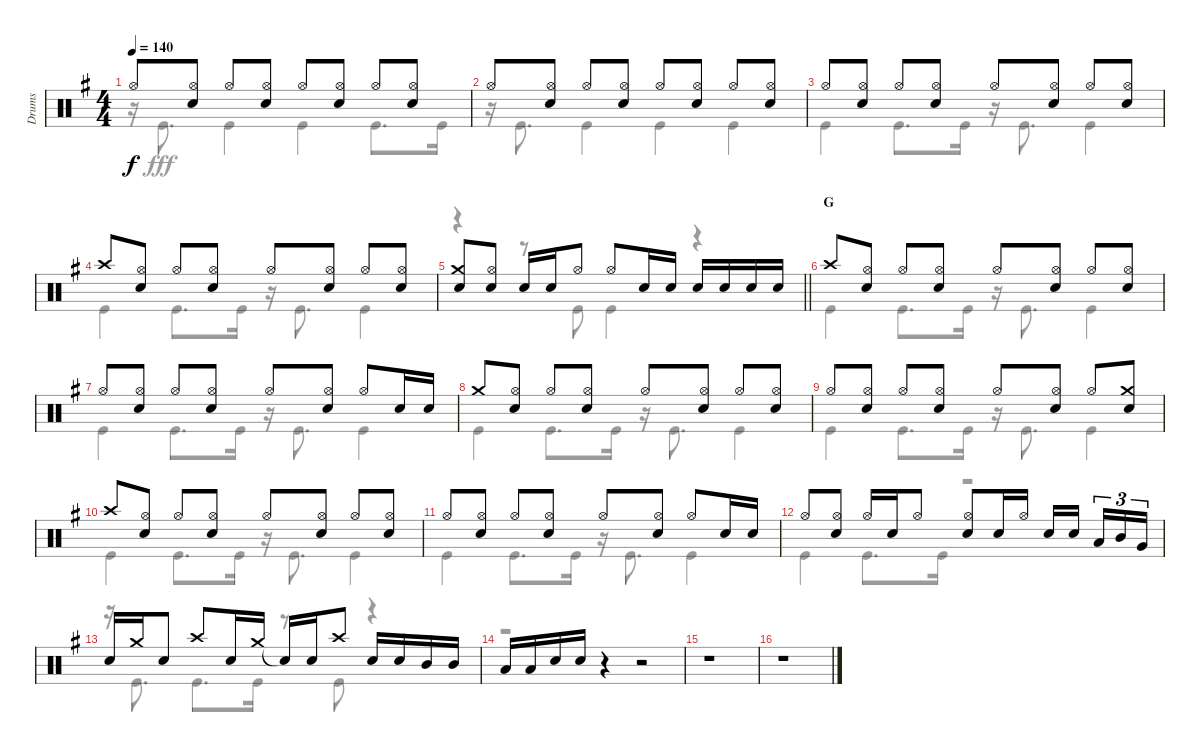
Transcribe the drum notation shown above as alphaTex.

\track ("Drums" "Drums") {instrument percussion}
\staff {score}
\articulation defaults
\voice
\ts (4 4)
\tempo 140
\clef neutral
\ks g "Hi-Hat (open)".8{dy f}
("Hi-Hat (open)" "Snare (hit) 2").8 "Hi-Hat (open)".8 ("Hi-Hat (open)" "Snare (hit) 2").8 "Hi-Hat (open)".8 ("Hi-Hat (open)" "Snare (hit) 2").8 "Hi-Hat (open)".8 ("Hi-Hat (open)" "Snare (hit) 2").8 |
"Hi-Hat (open)".8 ("Hi-Hat (open)" "Snare (hit) 2").8 "Hi-Hat (open)".8 ("Hi-Hat (open)" "Snare (hit) 2").8 "Hi-Hat (open)".8 ("Hi-Hat (open)" "Snare (hit) 2").8 "Hi-Hat (open)".8 ("Hi-Hat (open)" "Snare (hit) 2").8 |
"Hi-Hat (open)".8 ("Hi-Hat (open)" "Snare (hit) 2").8 "Hi-Hat (open)".8 ("Hi-Hat (open)" "Snare (hit) 2").8 "Hi-Hat (open)".8 ("Hi-Hat (open)" "Snare (hit) 2").8 "Hi-Hat (open)".8 ("Hi-Hat (open)" "Snare (hit) 2").8 |
"Crash high (hit)".8 ("Hi-Hat (open)" "Snare (hit) 2").8 "Hi-Hat (open)".8 ("Hi-Hat (open)" "Snare (hit) 2").8 "Hi-Hat (open)".8 ("Hi-Hat (open)" "Snare (hit) 2").8 "Hi-Hat (open)".8 ("Hi-Hat (open)" "Snare (hit) 2").8 |
\barLineRight lightlight
("Crash medium (hit)" "Snare (hit) 2").8 ("Hi-Hat (open)" "Snare (hit) 2").8 "Snare (hit) 2".16 "Snare (hit) 2".16 "Hi-Hat (open)".8 "Hi-Hat (open)".8 "Snare (hit) 2".16 "Snare (hit) 2".16 "Snare (hit) 2".16 "Snare (hit) 2".16 "Snare (hit) 2".16 "Snare (hit) 2".16 |
\section ("" "G")
"Crash high (hit)".8 ("Hi-Hat (open)" "Snare (hit) 2").8 "Hi-Hat (open)".8 ("Hi-Hat (open)" "Snare (hit) 2").8 "Hi-Hat (open)".8 ("Hi-Hat (open)" "Snare (hit) 2").8 "Hi-Hat (open)".8 ("Hi-Hat (open)" "Snare (hit) 2").8 |
"Hi-Hat (open)".8 ("Hi-Hat (open)" "Snare (hit) 2").8 "Hi-Hat (open)".8 ("Hi-Hat (open)" "Snare (hit) 2").8 "Hi-Hat (open)".8 ("Hi-Hat (open)" "Snare (hit) 2").8 "Hi-Hat (open)".8 "Snare (hit) 2".16 "Snare (hit) 2".16 |
"Crash medium (hit)".8 ("Hi-Hat (open)" "Snare (hit) 2").8 "Hi-Hat (open)".8 ("Hi-Hat (open)" "Snare (hit) 2").8 "Hi-Hat (open)".8 ("Hi-Hat (open)" "Snare (hit) 2").8 "Hi-Hat (open)".8 ("Hi-Hat (open)" "Snare (hit) 2").8 |
"Hi-Hat (open)".8 ("Hi-Hat (open)" "Snare (hit) 2").8 "Hi-Hat (open)".8 ("Hi-Hat (open)" "Snare (hit) 2").8 "Hi-Hat (open)".8 ("Hi-Hat (open)" "Snare (hit) 2").8 "Hi-Hat (open)".8 ("Crash medium (hit)" "Snare (hit) 2").8 |
"Crash high (hit)".8 ("Hi-Hat (open)" "Snare (hit) 2").8 "Hi-Hat (open)".8 ("Hi-Hat (open)" "Snare (hit) 2").8 "Hi-Hat (open)".8 ("Hi-Hat (open)" "Snare (hit) 2").8 "Hi-Hat (open)".8 ("Hi-Hat (open)" "Snare (hit) 2").8 |
"Hi-Hat (open)".8 ("Hi-Hat (open)" "Snare (hit) 2").8 "Hi-Hat (open)".8 ("Hi-Hat (open)" "Snare (hit) 2").8 "Hi-Hat (open)".8 ("Hi-Hat (open)" "Snare (hit) 2").8 "Hi-Hat (open)".8 "Snare (hit) 2".16 "Snare (hit) 2".16 |
"Hi-Hat (open)".8 ("Hi-Hat (open)" "Snare (hit) 2").8 "Hi-Hat (open)".16 "Snare (hit) 2".16 "Hi-Hat (open)".8 ("Hi-Hat (open)" "Snare (hit) 2").8 "Snare (hit) 2".16 "Hi-Hat (open)".16 "Snare (hit) 2".16 "Snare (hit) 2".16{beam splitsecondary} "Low Tom (hit)".16{tu (3 2)} "Mid Tom (hit)".16{tu (3 2)} "Very Low Tom (hit)".16{tu (3 2)} |
"Snare (hit) 2".16 "Crash medium (hit)".16 "Snare (hit) 2".8 "Crash high (hit)".8 "Snare (hit) 2".16 "Crash medium (hit)".16 "Snare (hit)"{t}.16 "Snare (hit) 2".16 "Crash high (hit)".8 "Snare (hit) 2".16 "Snare (hit) 2".16 "Mid Tom (hit)".16 "Mid Tom (hit)".16 |
"Low Tom (hit)".16 "Low Tom (hit)".16 "Snare (hit) 2".16 "Snare (hit) 2".16 r.4 r.2 |
r.1 |
r.1
\voice
\clef neutral
\ottava regular
\simile none
\ks g
r.16{dy fff} "Kick (hit)".8{d} "Kick (hit)".4 "Kick (hit)".4 "Kick (hit)".8{d} "Kick (hit)".16 |
r.16 "Kick (hit)".8{d} "Kick (hit)".4 "Kick (hit)".4 "Kick (hit)".4 |
"Kick (hit)".4 "Kick (hit)".8{d} "Kick (hit)".16 r.16 "Kick (hit)".8{d} "Kick (hit)".4 |
"Kick (hit)".4 "Kick (hit)".8{d} "Kick (hit)".16 r.16 "Kick (hit)".8{d} "Kick (hit)".4 |
\barLineRight lightlight
r.4 r.8 "Kick (hit)".8 "Kick (hit)".4 r.4 |
"Kick (hit)".4 "Kick (hit)".8{d} "Kick (hit)".16 r.16 "Kick (hit)".8{d} "Kick (hit)".4 |
"Kick (hit)".4 "Kick (hit)".8{d} "Kick (hit)".16 r.16 "Kick (hit)".8{d} "Kick (hit)".4 |
"Kick (hit)".4 "Kick (hit)".8{d} "Kick (hit)".16 r.16 "Kick (hit)".8{d} "Kick (hit)".4 |
"Kick (hit)".4 "Kick (hit)".8{d} "Kick (hit)".16 r.16 "Kick (hit)".8{d} "Kick (hit)".4 |
"Kick (hit)".4 "Kick (hit)".8{d} "Kick (hit)".16 r.16 "Kick (hit)".8{d} "Kick (hit)".4 |
"Kick (hit)".4 "Kick (hit)".8{d} "Kick (hit)".16 r.16 "Kick (hit)".8{d} "Kick (hit)".4 |
"Kick (hit)".4 "Kick (hit)".8{d} "Kick (hit)".16 r.2 |
r.16 "Kick (hit)".8{d} "Kick (hit)".8{d} "Kick (hit)".16 r.8 "Kick (hit)".8 r.4 |
r.1 |
r.1 |
r.1
